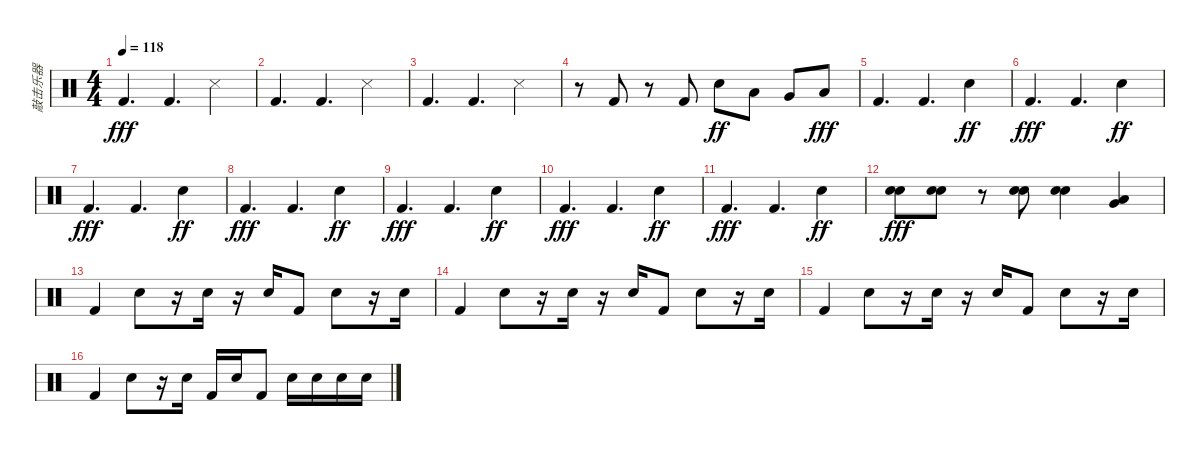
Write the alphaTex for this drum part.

\track ("敲击乐器" "敲击乐器") {instrument percussion}
\staff {score}
\articulation defaults
\ts (4 4)
\tempo 118
\clef neutral
\ks c "Kick (hit) 2".4{d dy fff} "Kick (hit) 2".4{d} "Snare (side stick) 3".4
|
"Kick (hit) 2".4{d} "Kick (hit) 2".4{d} "Snare (side stick) 3".4 |
"Kick (hit) 2".4{d} "Kick (hit) 2".4{d} "Snare (side stick) 3".4 |
r.8 "Kick (hit) 2".8 r.8 "Kick (hit) 2".8 "Snare (hit) 2".8{dy ff} "Low Tom (hit)".8 "Very Low Tom (hit)".8 "Low Floor Tom (hit)".8{dy fff} |
"Kick (hit) 2".4{d} "Kick (hit) 2".4{d} "Snare (hit) 2".4{dy ff} |
"Kick (hit) 2".4{d dy fff} "Kick (hit) 2".4{d} "Snare (hit) 2".4{dy ff} |
"Kick (hit) 2".4{d dy fff} "Kick (hit) 2".4{d} "Snare (hit) 2".4{dy ff} |
"Kick (hit) 2".4{d dy fff} "Kick (hit) 2".4{d} "Snare (hit) 2".4{dy ff} |
"Kick (hit) 2".4{d dy fff} "Kick (hit) 2".4{d} "Snare (hit) 2".4{dy ff} |
"Kick (hit) 2".4{d dy fff} "Kick (hit) 2".4{d} "Snare (hit) 2".4{dy ff} |
"Kick (hit) 2".4{d dy fff} "Kick (hit) 2".4{d} "Snare (hit) 2".4{dy ff} |
("Snare (hit) 2" "Snare (hit) 2").8{dy fff} ("Snare (hit) 2" "Snare (hit) 2").8 r.8 ("Snare (hit) 2" "Snare (hit) 2").8 ("Snare (hit) 2" "Snare (hit) 2").4 ("Very Low Tom (hit)" "Low Floor Tom (hit)").4 |
"Kick (hit) 2".4 "Snare (hit) 2".8 r.16 "Snare (hit) 2".16 r.16 "Snare (hit) 2".16 "Kick (hit) 2".8 "Snare (hit) 2".8 r.16 "Snare (hit) 2".16 |
"Kick (hit) 2".4 "Snare (hit) 2".8 r.16 "Snare (hit) 2".16 r.16 "Snare (hit) 2".16 "Kick (hit) 2".8 "Snare (hit) 2".8 r.16 "Snare (hit) 2".16 |
"Kick (hit) 2".4 "Snare (hit) 2".8 r.16 "Snare (hit) 2".16 r.16 "Snare (hit) 2".16 "Kick (hit) 2".8 "Snare (hit) 2".8 r.16 "Snare (hit) 2".16 |
"Kick (hit) 2".4 "Snare (hit) 2".8 r.16 "Snare (hit) 2".16 "Kick (hit) 2".16 "Snare (hit) 2".16 "Kick (hit) 2".8 "Snare (hit) 2".16 "Snare (hit) 2".16 "Snare (hit) 2".16 "Snare (hit) 2".16
